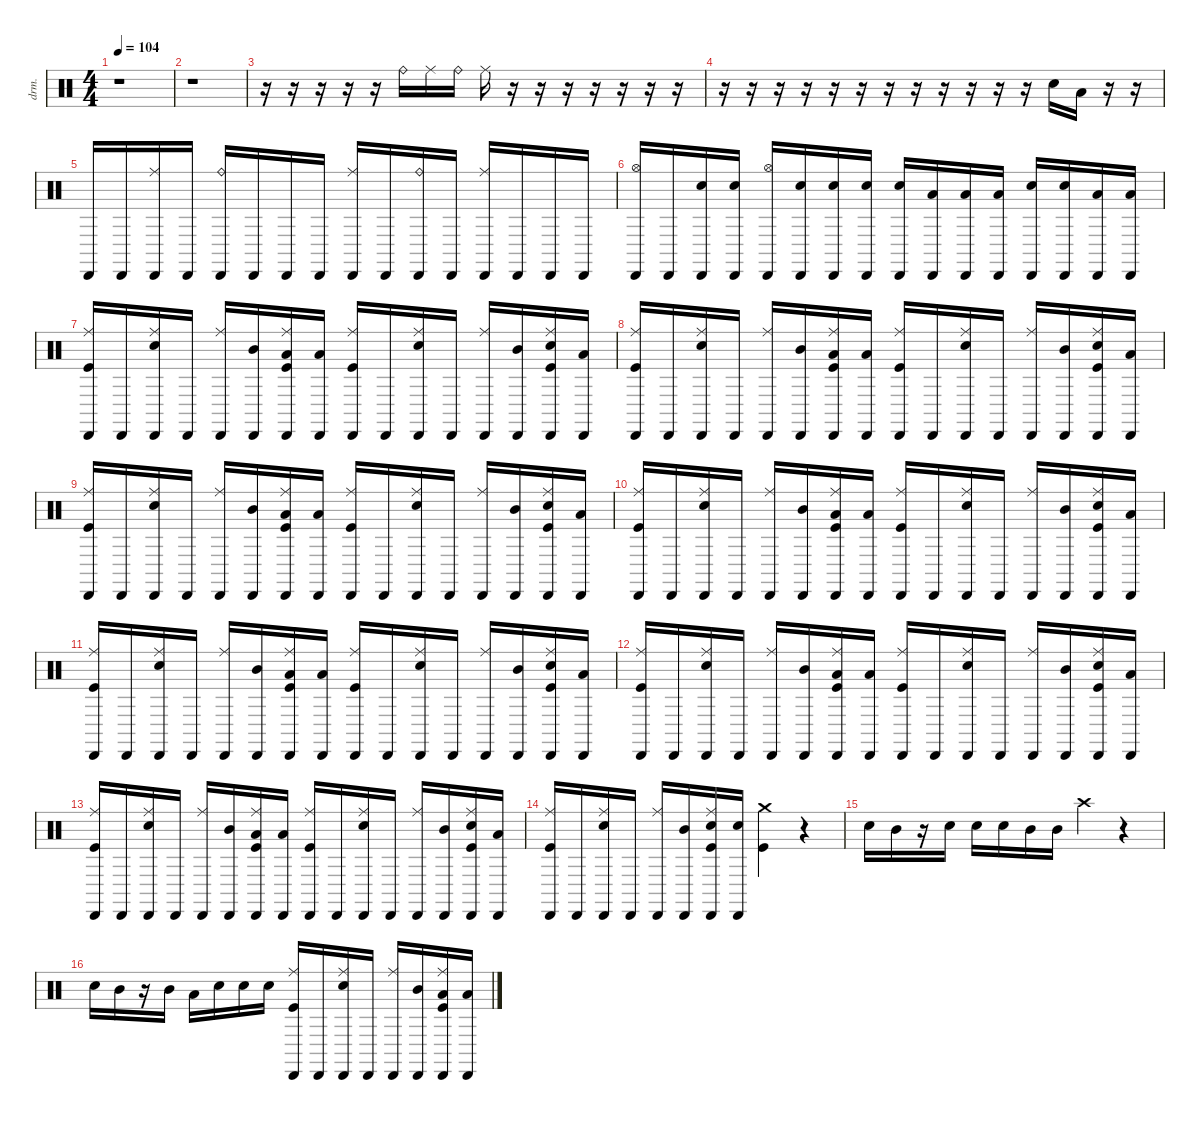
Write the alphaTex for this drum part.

\defaultSystemsLayout 4
\hideDynamics
\bracketExtendMode nobrackets
\otherSystemsTrackNameOrientation horizontal
\track ("Drums" "drm.") {instrument percussion}
\staff {score}
\articulation defaults
\ts (4 4)
\tempo 104
\clef neutral
\ks c
r.1{dy f beam Down} |
r.1{beam Down} |
r.16{beam Down} r.16{beam Down} r.16{beam Down} r.16{beam Down} r.16{beam Down} "Ride (bell)".16{beam Down} "Ride (middle)".16{beam Down} "Ride (bell)".16{beam Down} "Ride (middle)".16{beam Down} r.16{beam Down} r.16{beam Down} r.16{beam Down} r.16{beam Down} r.16{beam Down} r.16{beam Down} r.16{beam Down} |
r.16{beam Down} r.16{beam Down} r.16{beam Down} r.16{beam Down} r.16{beam Down} r.16{beam Down} r.16{beam Down} r.16{beam Down} r.16{beam Down} r.16{beam Down} r.16{beam Down} r.16{beam Down} "Snare (hit) 2".16{beam Down} "Low Tom (hit)".16{beam Down} r.16{beam Down} r.16{beam Down} |
"Cabasa (hit)".16{beam Up} "Cabasa (hit)".16{beam Up} ("Cabasa (hit)" "Ride (middle)").16{beam Up} "Cabasa (hit)".16{beam Up} ("Cabasa (hit)" "Ride (bell)").16{beam Up} "Cabasa (hit)".16{beam Up} "Cabasa (hit)".16{beam Up} "Cabasa (hit)".16{beam Up} ("Cabasa (hit)" "Ride (middle)").16{beam Up} "Cabasa (hit)".16{beam Up} ("Cabasa (hit)" "Ride (bell)").16{beam Up} "Cabasa (hit)".16{beam Up} ("Cabasa (hit)" "Ride (middle)").16{beam Up} "Cabasa (hit)".16{beam Up} "Cabasa (hit)".16{beam Up} "Cabasa (hit)".16{beam Up} |
("Cabasa (hit)" "Hi-Hat (open)").16{beam Up} "Cabasa (hit)".16{beam Up} ("Cabasa (hit)" "Snare (hit) 2").16{beam Up} ("Cabasa (hit)" "Snare (hit) 2").16{beam Up} ("Cabasa (hit)" "Hi-Hat (open)").16{beam Up} ("Cabasa (hit)" "Snare (hit) 2").16{beam Up} ("Cabasa (hit)" "Snare (hit) 2").16{beam Up} ("Cabasa (hit)" "Snare (hit) 2").16{beam Up} ("Cabasa (hit)" "Snare (hit) 2").16{beam Up} ("Cabasa (hit)" "Low Tom (hit)").16{beam Up} ("Cabasa (hit)" "Low Tom (hit)").16{beam Up} ("Cabasa (hit)" "Low Tom (hit)").16{beam Up} ("Cabasa (hit)" "Snare (hit) 2").16{beam Up} ("Cabasa (hit)" "Snare (hit) 2").16{beam Up} ("Cabasa (hit)" "Low Tom (hit)").16{beam Up} ("Cabasa (hit)" "Low Tom (hit)").16{beam Up} |
("Cabasa (hit)" "Ride (middle)" "Kick (hit)").16{beam Up} "Cabasa (hit)".16{beam Up} ("Cabasa (hit)" "Ride (middle)" "Snare (hit) 2").16{beam Up} "Cabasa (hit)".16{beam Up} ("Cabasa (hit)" "Ride (middle)").16{beam Up} ("Cabasa (hit)" "Mid Tom (hit)").16{beam Up} ("Cabasa (hit)" "Ride (middle)" "Low Tom (hit)" "Kick (hit)").16{beam Up} ("Cabasa (hit)" "Low Tom (hit)").16{beam Up} ("Cabasa (hit)" "Ride (middle)" "Kick (hit)").16{beam Up} "Cabasa (hit)".16{beam Up} ("Cabasa (hit)" "Ride (middle)" "Snare (hit) 2").16{beam Up} "Cabasa (hit)".16{beam Up} ("Cabasa (hit)" "Ride (middle)").16{beam Up} ("Cabasa (hit)" "Mid Tom (hit)").16{beam Up} ("Cabasa (hit)" "Ride (middle)" "Snare (hit) 2" "Kick (hit)").16{beam Up} ("Cabasa (hit)" "Low Tom (hit)").16{beam Up} |
("Cabasa (hit)" "Ride (middle)" "Kick (hit)").16{beam Up} "Cabasa (hit)".16{beam Up} ("Cabasa (hit)" "Ride (middle)" "Snare (hit) 2").16{beam Up} "Cabasa (hit)".16{beam Up} ("Cabasa (hit)" "Ride (middle)").16{beam Up} ("Cabasa (hit)" "Mid Tom (hit)").16{beam Up} ("Cabasa (hit)" "Ride (middle)" "Low Tom (hit)" "Kick (hit)").16{beam Up} ("Cabasa (hit)" "Low Tom (hit)").16{beam Up} ("Cabasa (hit)" "Ride (middle)" "Kick (hit)").16{beam Up} "Cabasa (hit)".16{beam Up} ("Cabasa (hit)" "Ride (middle)" "Snare (hit) 2").16{beam Up} "Cabasa (hit)".16{beam Up} ("Cabasa (hit)" "Ride (middle)").16{beam Up} ("Cabasa (hit)" "Mid Tom (hit)").16{beam Up} ("Cabasa (hit)" "Ride (middle)" "Snare (hit) 2" "Kick (hit)").16{beam Up} ("Cabasa (hit)" "Low Tom (hit)").16{beam Up} |
("Cabasa (hit)" "Ride (middle)" "Kick (hit)").16{beam Up} "Cabasa (hit)".16{beam Up} ("Cabasa (hit)" "Ride (middle)" "Snare (hit) 2").16{beam Up} "Cabasa (hit)".16{beam Up} ("Cabasa (hit)" "Ride (middle)").16{beam Up} ("Cabasa (hit)" "Mid Tom (hit)").16{beam Up} ("Cabasa (hit)" "Ride (middle)" "Low Tom (hit)" "Kick (hit)").16{beam Up} ("Cabasa (hit)" "Low Tom (hit)").16{beam Up} ("Cabasa (hit)" "Ride (middle)" "Kick (hit)").16{beam Up} "Cabasa (hit)".16{beam Up} ("Cabasa (hit)" "Ride (middle)" "Snare (hit) 2").16{beam Up} "Cabasa (hit)".16{beam Up} ("Cabasa (hit)" "Ride (middle)").16{beam Up} ("Cabasa (hit)" "Mid Tom (hit)").16{beam Up} ("Cabasa (hit)" "Ride (middle)" "Snare (hit) 2" "Kick (hit)").16{beam Up} ("Cabasa (hit)" "Low Tom (hit)").16{beam Up} |
("Cabasa (hit)" "Ride (middle)" "Kick (hit)").16{beam Up} "Cabasa (hit)".16{beam Up} ("Cabasa (hit)" "Ride (middle)" "Snare (hit) 2").16{beam Up} "Cabasa (hit)".16{beam Up} ("Cabasa (hit)" "Ride (middle)").16{beam Up} ("Cabasa (hit)" "Mid Tom (hit)").16{beam Up} ("Cabasa (hit)" "Ride (middle)" "Low Tom (hit)" "Kick (hit)").16{beam Up} ("Cabasa (hit)" "Low Tom (hit)").16{beam Up} ("Cabasa (hit)" "Ride (middle)" "Kick (hit)").16{beam Up} "Cabasa (hit)".16{beam Up} ("Cabasa (hit)" "Ride (middle)" "Snare (hit) 2").16{beam Up} "Cabasa (hit)".16{beam Up} ("Cabasa (hit)" "Ride (middle)").16{beam Up} ("Cabasa (hit)" "Mid Tom (hit)").16{beam Up} ("Cabasa (hit)" "Ride (middle)" "Snare (hit) 2" "Kick (hit)").16{beam Up} ("Cabasa (hit)" "Low Tom (hit)").16{beam Up} |
("Cabasa (hit)" "Ride (middle)" "Kick (hit)").16{beam Up} "Cabasa (hit)".16{beam Up} ("Cabasa (hit)" "Ride (middle)" "Snare (hit) 2").16{beam Up} "Cabasa (hit)".16{beam Up} ("Cabasa (hit)" "Ride (middle)").16{beam Up} ("Cabasa (hit)" "Mid Tom (hit)").16{beam Up} ("Cabasa (hit)" "Ride (middle)" "Low Tom (hit)" "Kick (hit)").16{beam Up} ("Cabasa (hit)" "Low Tom (hit)").16{beam Up} ("Cabasa (hit)" "Ride (middle)" "Kick (hit)").16{beam Up} "Cabasa (hit)".16{beam Up} ("Cabasa (hit)" "Ride (middle)" "Snare (hit) 2").16{beam Up} "Cabasa (hit)".16{beam Up} ("Cabasa (hit)" "Ride (middle)").16{beam Up} ("Cabasa (hit)" "Mid Tom (hit)").16{beam Up} ("Cabasa (hit)" "Ride (middle)" "Snare (hit) 2" "Kick (hit)").16{beam Up} ("Cabasa (hit)" "Low Tom (hit)").16{beam Up} |
("Cabasa (hit)" "Ride (middle)" "Kick (hit)").16{beam Up} "Cabasa (hit)".16{beam Up} ("Cabasa (hit)" "Ride (middle)" "Snare (hit) 2").16{beam Up} "Cabasa (hit)".16{beam Up} ("Cabasa (hit)" "Ride (middle)").16{beam Up} ("Cabasa (hit)" "Mid Tom (hit)").16{beam Up} ("Cabasa (hit)" "Ride (middle)" "Low Tom (hit)" "Kick (hit)").16{beam Up} ("Cabasa (hit)" "Low Tom (hit)").16{beam Up} ("Cabasa (hit)" "Ride (middle)" "Kick (hit)").16{beam Up} "Cabasa (hit)".16{beam Up} ("Cabasa (hit)" "Ride (middle)" "Snare (hit) 2").16{beam Up} "Cabasa (hit)".16{beam Up} ("Cabasa (hit)" "Ride (middle)").16{beam Up} ("Cabasa (hit)" "Mid Tom (hit)").16{beam Up} ("Cabasa (hit)" "Ride (middle)" "Snare (hit) 2" "Kick (hit)").16{beam Up} ("Cabasa (hit)" "Low Tom (hit)").16{beam Up} |
("Cabasa (hit)" "Ride (middle)" "Kick (hit)").16{beam Up} "Cabasa (hit)".16{beam Up} ("Cabasa (hit)" "Ride (middle)" "Snare (hit) 2").16{beam Up} "Cabasa (hit)".16{beam Up} ("Cabasa (hit)" "Ride (middle)").16{beam Up} ("Cabasa (hit)" "Mid Tom (hit)").16{beam Up} ("Cabasa (hit)" "Ride (middle)" "Low Tom (hit)" "Kick (hit)").16{beam Up} ("Cabasa (hit)" "Low Tom (hit)").16{beam Up} ("Cabasa (hit)" "Ride (middle)" "Kick (hit)").16{beam Up} "Cabasa (hit)".16{beam Up} ("Cabasa (hit)" "Ride (middle)" "Snare (hit) 2").16{beam Up} "Cabasa (hit)".16{beam Up} ("Cabasa (hit)" "Ride (middle)").16{beam Up} ("Cabasa (hit)" "Mid Tom (hit)").16{beam Up} ("Cabasa (hit)" "Ride (middle)" "Snare (hit) 2" "Kick (hit)").16{beam Up} ("Cabasa (hit)" "Low Tom (hit)").16{beam Up} |
("Cabasa (hit)" "Ride (middle)" "Kick (hit)").16{beam Up} "Cabasa (hit)".16{beam Up} ("Cabasa (hit)" "Ride (middle)" "Snare (hit) 2").16{beam Up} "Cabasa (hit)".16{beam Up} ("Cabasa (hit)" "Ride (middle)").16{beam Up} ("Cabasa (hit)" "Mid Tom (hit)").16{beam Up} ("Cabasa (hit)" "Ride (middle)" "Snare (hit) 2" "Kick (hit)").16{beam Up} ("Cabasa (hit)" "Snare (hit) 2").16{beam Up} ("Crash medium (hit)" "Kick (hit)").4{beam Down} r.4{beam Down} |
"Snare (hit) 2".16{beam Down} "Mid Tom (hit)".16{beam Down} r.16{beam Down} "Snare (hit) 2".16{beam Down} "Snare (hit) 2".16{beam Down} "Snare (hit) 2".16{beam Down} "Mid Tom (hit)".16{beam Down} "Mid Tom (hit)".16{beam Down} "Crash high (hit)".4{beam Down} r.4{beam Down} |
"Snare (hit) 2".16{beam Down} "Mid Tom (hit)".16{beam Down} r.16{beam Down} "Mid Tom (hit)".16{beam Down} "Low Tom (hit)".16{beam Down} "Snare (hit) 2".16{beam Down} "Snare (hit) 2".16{beam Down} "Snare (hit) 2".16{beam Down} ("Cabasa (hit)" "Ride (middle)" "Kick (hit)").16{beam Up} "Cabasa (hit)".16{beam Up} ("Cabasa (hit)" "Ride (middle)" "Snare (hit) 2").16{beam Up} "Cabasa (hit)".16{beam Up} ("Cabasa (hit)" "Ride (middle)").16{beam Up} ("Cabasa (hit)" "Mid Tom (hit)").16{beam Up} ("Cabasa (hit)" "Ride (middle)" "Low Tom (hit)" "Kick (hit)").16{beam Up} ("Cabasa (hit)" "Low Tom (hit)").16{beam Up}
